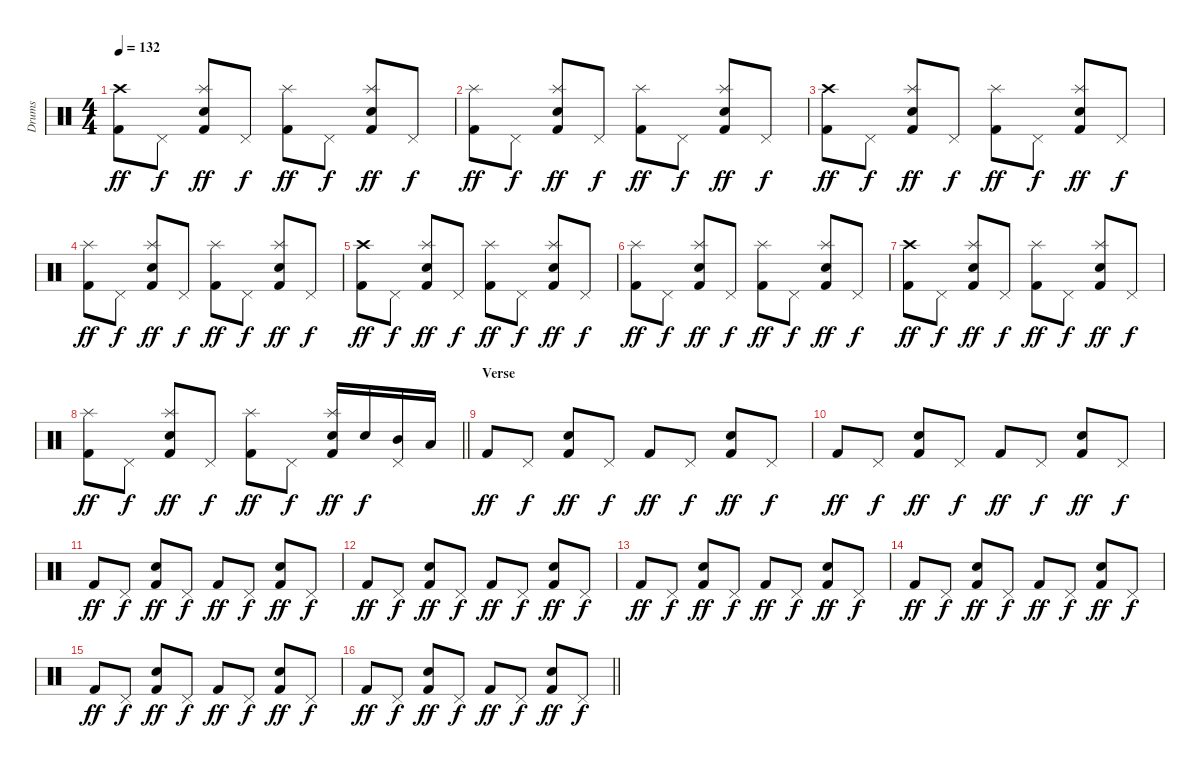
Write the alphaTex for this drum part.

\track ("Drums" "Drums") {instrument percussion}
\staff {score}
\articulation defaults
\ts (4 4)
\tempo 132
\clef neutral
\ks c
("Crash high (hit)" "Kick (hit) 2").8{dy ff} "Pedal Hi-Hat (hit)".8{dy f} ("Splash (hit)" "Snare (hit) 2" "Kick (hit) 2").8{dy ff} "Pedal Hi-Hat (hit)".8{dy f} ("Splash (hit)" "Kick (hit) 2").8{dy ff} "Pedal Hi-Hat (hit)".8{dy f} ("Splash (hit)" "Snare (hit) 2" "Kick (hit) 2").8{dy ff} "Pedal Hi-Hat (hit)".8{dy f} |
("Splash (hit)" "Kick (hit) 2").8{dy ff} "Pedal Hi-Hat (hit)".8{dy f} ("Splash (hit)" "Snare (hit) 2" "Kick (hit) 2").8{dy ff} "Pedal Hi-Hat (hit)".8{dy f} ("Splash (hit)" "Kick (hit) 2").8{dy ff} "Pedal Hi-Hat (hit)".8{dy f} ("Splash (hit)" "Snare (hit) 2" "Kick (hit) 2").8{dy ff} "Pedal Hi-Hat (hit)".8{dy f} |
("Crash high (hit)" "Kick (hit) 2").8{dy ff} "Pedal Hi-Hat (hit)".8{dy f} ("Splash (hit)" "Snare (hit) 2" "Kick (hit) 2").8{dy ff} "Pedal Hi-Hat (hit)".8{dy f} ("Splash (hit)" "Kick (hit) 2").8{dy ff} "Pedal Hi-Hat (hit)".8{dy f} ("Splash (hit)" "Snare (hit) 2" "Kick (hit) 2").8{dy ff} "Pedal Hi-Hat (hit)".8{dy f} |
("Splash (hit)" "Kick (hit) 2").8{dy ff} "Pedal Hi-Hat (hit)".8{dy f} ("Splash (hit)" "Snare (hit) 2" "Kick (hit) 2").8{dy ff} "Pedal Hi-Hat (hit)".8{dy f} ("Splash (hit)" "Kick (hit) 2").8{dy ff} "Pedal Hi-Hat (hit)".8{dy f} ("Splash (hit)" "Snare (hit) 2" "Kick (hit) 2").8{dy ff} "Pedal Hi-Hat (hit)".8{dy f} |
("Crash high (hit)" "Kick (hit) 2").8{dy ff} "Pedal Hi-Hat (hit)".8{dy f} ("Splash (hit)" "Snare (hit) 2" "Kick (hit) 2").8{dy ff} "Pedal Hi-Hat (hit)".8{dy f} ("Splash (hit)" "Kick (hit) 2").8{dy ff} "Pedal Hi-Hat (hit)".8{dy f} ("Splash (hit)" "Snare (hit) 2" "Kick (hit) 2").8{dy ff} "Pedal Hi-Hat (hit)".8{dy f} |
("Splash (hit)" "Kick (hit) 2").8{dy ff} "Pedal Hi-Hat (hit)".8{dy f} ("Splash (hit)" "Snare (hit) 2" "Kick (hit) 2").8{dy ff} "Pedal Hi-Hat (hit)".8{dy f} ("Splash (hit)" "Kick (hit) 2").8{dy ff} "Pedal Hi-Hat (hit)".8{dy f} ("Splash (hit)" "Snare (hit) 2" "Kick (hit) 2").8{dy ff} "Pedal Hi-Hat (hit)".8{dy f} |
("Crash high (hit)" "Kick (hit) 2").8{dy ff} "Pedal Hi-Hat (hit)".8{dy f} ("Splash (hit)" "Snare (hit) 2" "Kick (hit) 2").8{dy ff} "Pedal Hi-Hat (hit)".8{dy f} ("Splash (hit)" "Kick (hit) 2").8{dy ff} "Pedal Hi-Hat (hit)".8{dy f} ("Splash (hit)" "Snare (hit) 2" "Kick (hit) 2").8{dy ff} "Pedal Hi-Hat (hit)".8{dy f} |
\barLineRight lightlight
("Splash (hit)" "Kick (hit) 2").8{dy ff} "Pedal Hi-Hat (hit)".8{dy f} ("Splash (hit)" "Snare (hit) 2" "Kick (hit) 2").8{dy ff} "Pedal Hi-Hat (hit)".8{dy f} ("Splash (hit)" "Kick (hit) 2").8{dy ff} "Pedal Hi-Hat (hit)".8{dy f} ("Splash (hit)" "Snare (hit) 2" "Kick (hit) 2").16{dy ff} "Snare (hit) 2".16{dy f} ("Pedal Hi-Hat (hit)" "Mid Tom (hit)").16 "Low Tom (hit)".16 |
\section ("" "Verse")
"Kick (hit) 2".8{dy ff} "Pedal Hi-Hat (hit)".8{dy f} ("Snare (hit) 2" "Kick (hit) 2").8{dy ff} "Pedal Hi-Hat (hit)".8{dy f} "Kick (hit) 2".8{dy ff} "Pedal Hi-Hat (hit)".8{dy f} ("Snare (hit) 2" "Kick (hit) 2").8{dy ff} "Pedal Hi-Hat (hit)".8{dy f} |
"Kick (hit) 2".8{dy ff} "Pedal Hi-Hat (hit)".8{dy f} ("Snare (hit) 2" "Kick (hit) 2").8{dy ff} "Pedal Hi-Hat (hit)".8{dy f} "Kick (hit) 2".8{dy ff} "Pedal Hi-Hat (hit)".8{dy f} ("Snare (hit) 2" "Kick (hit) 2").8{dy ff} "Pedal Hi-Hat (hit)".8{dy f} |
"Kick (hit) 2".8{dy ff} "Pedal Hi-Hat (hit)".8{dy f} ("Snare (hit) 2" "Kick (hit) 2").8{dy ff} "Pedal Hi-Hat (hit)".8{dy f} "Kick (hit) 2".8{dy ff} "Pedal Hi-Hat (hit)".8{dy f} ("Snare (hit) 2" "Kick (hit) 2").8{dy ff} "Pedal Hi-Hat (hit)".8{dy f} |
"Kick (hit) 2".8{dy ff} "Pedal Hi-Hat (hit)".8{dy f} ("Snare (hit) 2" "Kick (hit) 2").8{dy ff} "Pedal Hi-Hat (hit)".8{dy f} "Kick (hit) 2".8{dy ff} "Pedal Hi-Hat (hit)".8{dy f} ("Snare (hit) 2" "Kick (hit) 2").8{dy ff} "Pedal Hi-Hat (hit)".8{dy f} |
"Kick (hit) 2".8{dy ff} "Pedal Hi-Hat (hit)".8{dy f} ("Snare (hit) 2" "Kick (hit) 2").8{dy ff} "Pedal Hi-Hat (hit)".8{dy f} "Kick (hit) 2".8{dy ff} "Pedal Hi-Hat (hit)".8{dy f} ("Snare (hit) 2" "Kick (hit) 2").8{dy ff} "Pedal Hi-Hat (hit)".8{dy f} |
"Kick (hit) 2".8{dy ff} "Pedal Hi-Hat (hit)".8{dy f} ("Snare (hit) 2" "Kick (hit) 2").8{dy ff} "Pedal Hi-Hat (hit)".8{dy f} "Kick (hit) 2".8{dy ff} "Pedal Hi-Hat (hit)".8{dy f} ("Snare (hit) 2" "Kick (hit) 2").8{dy ff} "Pedal Hi-Hat (hit)".8{dy f} |
"Kick (hit) 2".8{dy ff} "Pedal Hi-Hat (hit)".8{dy f} ("Snare (hit) 2" "Kick (hit) 2").8{dy ff} "Pedal Hi-Hat (hit)".8{dy f} "Kick (hit) 2".8{dy ff} "Pedal Hi-Hat (hit)".8{dy f} ("Snare (hit) 2" "Kick (hit) 2").8{dy ff} "Pedal Hi-Hat (hit)".8{dy f} |
\barLineRight lightlight "Kick (hit) 2".8{dy ff} "Pedal Hi-Hat (hit)".8{dy f}
("Snare (hit) 2" "Kick (hit) 2").8{dy ff} "Pedal Hi-Hat (hit)".8{dy f} "Kick (hit) 2".8{dy ff} "Pedal Hi-Hat (hit)".8{dy f} ("Snare (hit) 2" "Kick (hit) 2").8{dy ff} "Pedal Hi-Hat (hit)".8{dy f}
